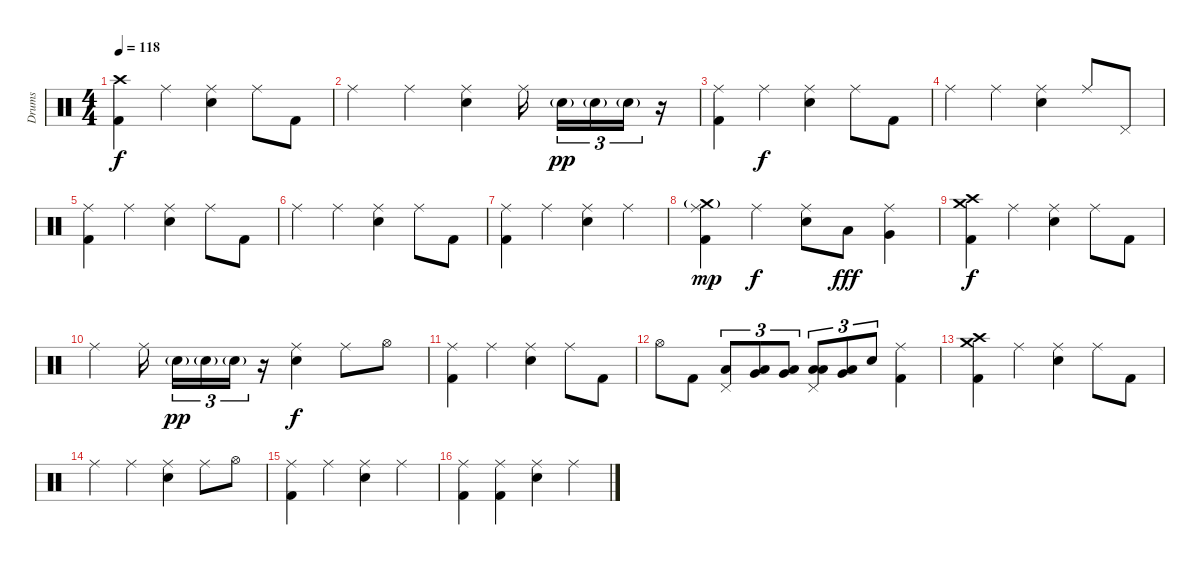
\track ("Drums" "Drums") {instrument percussion}
\staff {score}
\articulation defaults
\ts (4 4)
\tempo 118
\clef neutral
\ks c
("Crash high (hit)" "Kick (hit) 2").4{dy f} "Ride (middle)".4 ("Ride (middle)" "Electric Snare (hit)").4 "Ride (middle)".8 "Kick (hit) 2".8 |
"Ride (middle)".4 "Ride (middle)".4 ("Ride (middle)" "Electric Snare (hit)").4 "Ride (middle)".16{beam splitsecondary} "Electric Snare (hit)"{g}.16{tu (3 2) dy pp} "Electric Snare (hit)"{g}.16{tu (3 2)} "Electric Snare (hit)"{g}.16{tu (3 2)} r.16 |
("Ride (middle)" "Kick (hit) 2").4 "Ride (middle)".4{dy f} ("Ride (middle)" "Electric Snare (hit)").4 "Ride (middle)".8 "Kick (hit) 2".8 |
"Ride (middle)".4 "Ride (middle)".4 ("Ride (middle)" "Electric Snare (hit)").4 "Ride (middle)".8 "Pedal Hi-Hat (hit)".8 |
("Ride (middle)" "Kick (hit) 2").4 "Ride (middle)".4 ("Ride (middle)" "Electric Snare (hit)").4 "Ride (middle)".8 "Kick (hit) 2".8 |
"Ride (middle)".4 "Ride (middle)".4 ("Ride (middle)" "Electric Snare (hit)").4 "Ride (middle)".8 "Kick (hit) 2".8 |
("Ride (middle)" "Kick (hit) 2").4 "Ride (middle)".4 ("Ride (middle)" "Electric Snare (hit)").4 "Ride (middle)".4 |
("Crash medium (hit)"{g} "Ride (middle)" "Kick (hit) 2").4{dy mp} "Ride (middle)".4{dy f} ("Ride (middle)" "Electric Snare (hit)").8 "Low Floor Tom (hit)".8{dy fff} ("Ride (middle)" "Very Low Tom (hit)").4 |
("Crash high (hit)" "Crash medium (hit)" "Kick (hit) 2").4{dy f} "Ride (middle)".4 ("Ride (middle)" "Electric Snare (hit)").4 "Ride (middle)".8 "Kick (hit) 2".8 |
"Ride (middle)".4 "Ride (middle)".16{beam splitsecondary} "Electric Snare (hit)"{g}.16{tu (3 2) dy pp} "Electric Snare (hit)"{g}.16{tu (3 2)} "Electric Snare (hit)"{g}.16{tu (3 2)} r.16 ("Ride (middle)" "Electric Snare (hit)").4{dy f} "Ride (middle)".8 "Hi-Hat (open)".8 |
("Ride (middle)" "Kick (hit) 2").4 "Ride (middle)".4 ("Ride (middle)" "Electric Snare (hit)").4 "Ride (middle)".8 "Kick (hit) 2".8 |
"Hi-Hat (open)".8 "Kick (hit) 2".8 ("Pedal Hi-Hat (hit)" "Low Floor Tom (hit)").8{tu (3 2)} ("Very Low Tom (hit)" "Low Floor Tom (hit)").8{tu (3 2)} ("Very Low Tom (hit)" "Low Floor Tom (hit)").8{tu (3 2)} ("Pedal Hi-Hat (hit)" "Low Tom (hit)" "Low Floor Tom (hit)").8{tu (3 2)} ("Very Low Tom (hit)" "Low Floor Tom (hit)").8{tu (3 2)} "Electric Snare (hit)".8{tu (3 2)} ("Ride (middle)" "Kick (hit) 2").4 |
("Crash medium (hit)" "Crash high (hit)" "Kick (hit) 2").4 "Ride (middle)".4 ("Ride (middle)" "Electric Snare (hit)").4 "Ride (middle)".8 "Kick (hit) 2".8 |
"Ride (middle)".4 "Ride (middle)".4 ("Ride (middle)" "Electric Snare (hit)").4 "Ride (middle)".8 "Hi-Hat (open)".8 |
("Ride (middle)" "Kick (hit) 2").4 "Ride (middle)".4 ("Ride (middle)" "Electric Snare (hit)").4 "Ride (middle)".4 |
("Ride (middle)" "Kick (hit) 2").4 ("Ride (middle)" "Kick (hit) 2").4 ("Ride (middle)" "Electric Snare (hit)").4 "Ride (middle)".4
